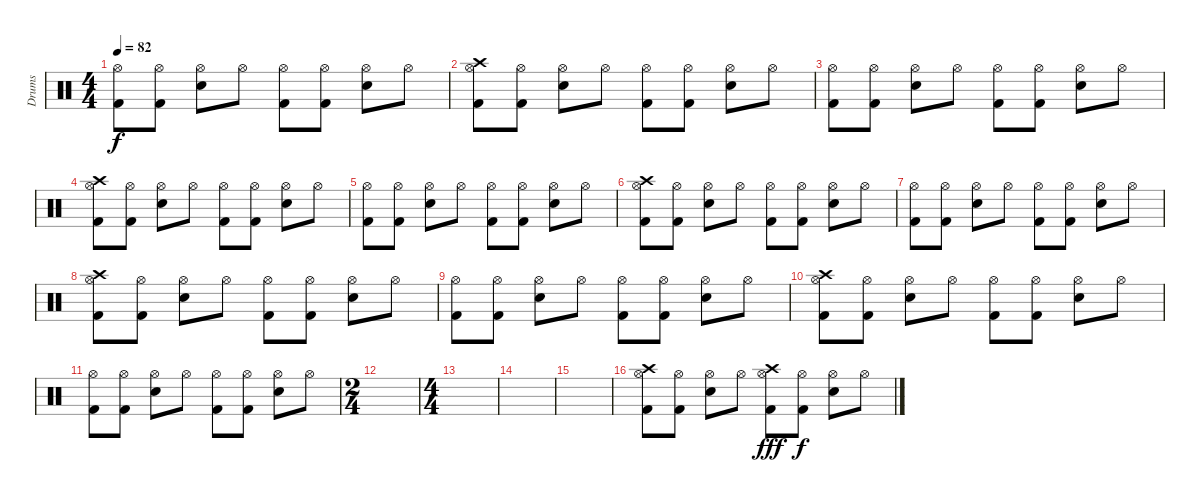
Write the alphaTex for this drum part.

\track ("Drums" "Drums") {instrument percussion}
\staff {score}
\articulation defaults
\ts (4 4)
\tempo 82
\clef neutral
\ks c
("Hi-Hat (open)" "Kick (hit) 2").8{dy f} ("Hi-Hat (open)" "Kick (hit) 2").8 ("Hi-Hat (open)" "Electric Snare (hit)").8 "Hi-Hat (open)".8 ("Hi-Hat (open)" "Kick (hit) 2").8 ("Hi-Hat (open)" "Kick (hit) 2").8 ("Hi-Hat (open)" "Electric Snare (hit)").8 "Hi-Hat (open)".8 |
("Hi-Hat (open)" "Crash high (hit)" "Kick (hit) 2").8 ("Hi-Hat (open)" "Kick (hit) 2").8 ("Hi-Hat (open)" "Electric Snare (hit)").8 "Hi-Hat (open)".8 ("Hi-Hat (open)" "Kick (hit) 2").8 ("Hi-Hat (open)" "Kick (hit) 2").8 ("Hi-Hat (open)" "Electric Snare (hit)").8 "Hi-Hat (open)".8 |
("Hi-Hat (open)" "Kick (hit) 2").8 ("Hi-Hat (open)" "Kick (hit) 2").8 ("Hi-Hat (open)" "Electric Snare (hit)").8 "Hi-Hat (open)".8 ("Hi-Hat (open)" "Kick (hit) 2").8 ("Hi-Hat (open)" "Kick (hit) 2").8 ("Hi-Hat (open)" "Electric Snare (hit)").8 "Hi-Hat (open)".8 |
("Hi-Hat (open)" "Crash high (hit)" "Kick (hit) 2").8 ("Hi-Hat (open)" "Kick (hit) 2").8 ("Hi-Hat (open)" "Electric Snare (hit)").8 "Hi-Hat (open)".8 ("Hi-Hat (open)" "Kick (hit) 2").8 ("Hi-Hat (open)" "Kick (hit) 2").8 ("Hi-Hat (open)" "Electric Snare (hit)").8 "Hi-Hat (open)".8 |
("Hi-Hat (open)" "Kick (hit) 2").8 ("Hi-Hat (open)" "Kick (hit) 2").8 ("Hi-Hat (open)" "Electric Snare (hit)").8 "Hi-Hat (open)".8 ("Hi-Hat (open)" "Kick (hit) 2").8 ("Hi-Hat (open)" "Kick (hit) 2").8 ("Hi-Hat (open)" "Electric Snare (hit)").8 "Hi-Hat (open)".8 |
("Hi-Hat (open)" "Crash high (hit)" "Kick (hit) 2").8 ("Hi-Hat (open)" "Kick (hit) 2").8 ("Hi-Hat (open)" "Electric Snare (hit)").8 "Hi-Hat (open)".8 ("Hi-Hat (open)" "Kick (hit) 2").8 ("Hi-Hat (open)" "Kick (hit) 2").8 ("Hi-Hat (open)" "Electric Snare (hit)").8 "Hi-Hat (open)".8 |
("Hi-Hat (open)" "Kick (hit) 2").8 ("Hi-Hat (open)" "Kick (hit) 2").8 ("Hi-Hat (open)" "Electric Snare (hit)").8 "Hi-Hat (open)".8 ("Hi-Hat (open)" "Kick (hit) 2").8 ("Hi-Hat (open)" "Kick (hit) 2").8 ("Hi-Hat (open)" "Electric Snare (hit)").8 "Hi-Hat (open)".8 |
("Hi-Hat (open)" "Crash high (hit)" "Kick (hit) 2").8 ("Hi-Hat (open)" "Kick (hit) 2").8 ("Hi-Hat (open)" "Electric Snare (hit)").8 "Hi-Hat (open)".8 ("Hi-Hat (open)" "Kick (hit) 2").8 ("Hi-Hat (open)" "Kick (hit) 2").8 ("Hi-Hat (open)" "Electric Snare (hit)").8 "Hi-Hat (open)".8 |
("Hi-Hat (open)" "Kick (hit) 2").8 ("Hi-Hat (open)" "Kick (hit) 2").8 ("Hi-Hat (open)" "Electric Snare (hit)").8 "Hi-Hat (open)".8 ("Hi-Hat (open)" "Kick (hit) 2").8 ("Hi-Hat (open)" "Kick (hit) 2").8 ("Hi-Hat (open)" "Electric Snare (hit)").8 "Hi-Hat (open)".8 |
("Hi-Hat (open)" "Crash high (hit)" "Kick (hit) 2").8 ("Hi-Hat (open)" "Kick (hit) 2").8 ("Hi-Hat (open)" "Electric Snare (hit)").8 "Hi-Hat (open)".8 ("Hi-Hat (open)" "Kick (hit) 2").8 ("Hi-Hat (open)" "Kick (hit) 2").8 ("Hi-Hat (open)" "Electric Snare (hit)").8 "Hi-Hat (open)".8 |
("Hi-Hat (open)" "Kick (hit) 2").8 ("Hi-Hat (open)" "Kick (hit) 2").8 ("Hi-Hat (open)" "Electric Snare (hit)").8 "Hi-Hat (open)".8 ("Hi-Hat (open)" "Kick (hit) 2").8 ("Hi-Hat (open)" "Kick (hit) 2").8 ("Hi-Hat (open)" "Electric Snare (hit)").8 "Hi-Hat (open)".8 |
\ts (2 4)
|
\ts (4 4)
|
|
|
("Hi-Hat (open)" "Crash high (hit)" "Kick (hit) 2").8 ("Hi-Hat (open)" "Kick (hit) 2").8 ("Hi-Hat (open)" "Electric Snare (hit)").8 "Hi-Hat (open)".8 ("Hi-Hat (open)" "Crash high (hit)" "Kick (hit) 2").8{dy fff} ("Hi-Hat (open)" "Kick (hit) 2").8{dy f} ("Hi-Hat (open)" "Electric Snare (hit)").8 "Hi-Hat (open)".8
